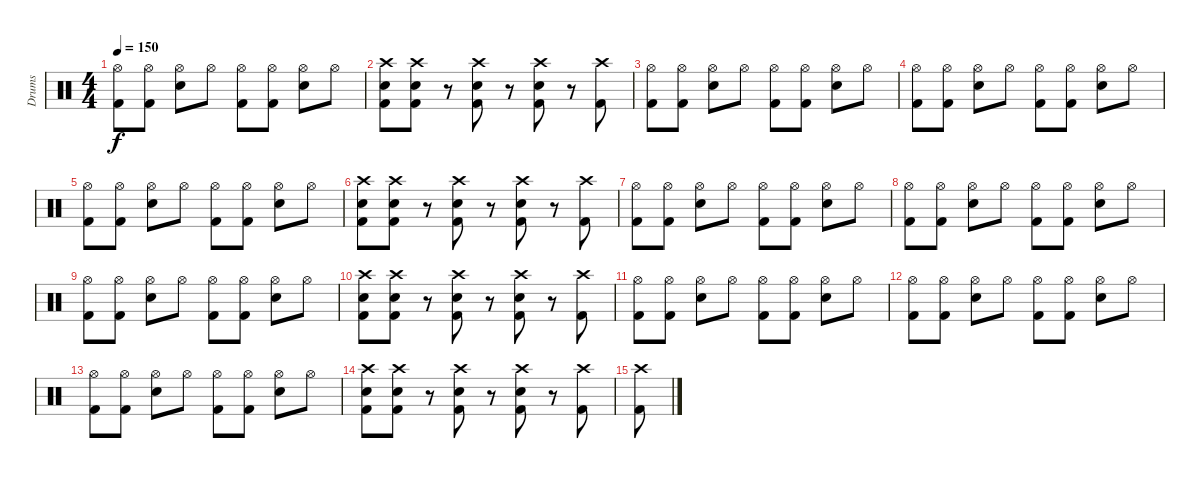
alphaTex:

\track ("Drums" "Drums") {instrument percussion}
\staff {score}
\articulation defaults
\ts (4 4)
\tempo 150
\clef neutral
\ks c
("Hi-Hat (open)" "Kick (hit) 2").8{dy f} ("Hi-Hat (open)" "Kick (hit) 2").8 ("Hi-Hat (open)" "Electric Snare (hit)").8 "Hi-Hat (open)".8 ("Hi-Hat (open)" "Kick (hit) 2").8 ("Hi-Hat (open)" "Kick (hit) 2").8 ("Hi-Hat (open)" "Electric Snare (hit)").8 "Hi-Hat (open)".8 |
("Crash high (hit)" "Electric Snare (hit)" "Kick (hit) 2").8 ("Crash high (hit)" "Electric Snare (hit)" "Kick (hit) 2").8 r.8 ("Crash high (hit)" "Electric Snare (hit)" "Kick (hit) 2").8 r.8 ("Crash high (hit)" "Electric Snare (hit)" "Kick (hit) 2").8 r.8 ("Crash high (hit)" "Kick (hit) 2").8 |
("Hi-Hat (open)" "Kick (hit) 2").8 ("Hi-Hat (open)" "Kick (hit) 2").8 ("Hi-Hat (open)" "Electric Snare (hit)").8 "Hi-Hat (open)".8 ("Hi-Hat (open)" "Kick (hit) 2").8 ("Hi-Hat (open)" "Kick (hit) 2").8 ("Hi-Hat (open)" "Electric Snare (hit)").8 "Hi-Hat (open)".8 |
("Hi-Hat (open)" "Kick (hit) 2").8 ("Hi-Hat (open)" "Kick (hit) 2").8 ("Hi-Hat (open)" "Electric Snare (hit)").8 "Hi-Hat (open)".8 ("Hi-Hat (open)" "Kick (hit) 2").8 ("Hi-Hat (open)" "Kick (hit) 2").8 ("Hi-Hat (open)" "Electric Snare (hit)").8 "Hi-Hat (open)".8 |
("Hi-Hat (open)" "Kick (hit) 2").8 ("Hi-Hat (open)" "Kick (hit) 2").8 ("Hi-Hat (open)" "Electric Snare (hit)").8 "Hi-Hat (open)".8 ("Hi-Hat (open)" "Kick (hit) 2").8 ("Hi-Hat (open)" "Kick (hit) 2").8 ("Hi-Hat (open)" "Electric Snare (hit)").8 "Hi-Hat (open)".8 |
("Crash high (hit)" "Electric Snare (hit)" "Kick (hit) 2").8 ("Crash high (hit)" "Electric Snare (hit)" "Kick (hit) 2").8 r.8 ("Crash high (hit)" "Electric Snare (hit)" "Kick (hit) 2").8 r.8 ("Crash high (hit)" "Electric Snare (hit)" "Kick (hit) 2").8 r.8 ("Crash high (hit)" "Kick (hit) 2").8 |
("Hi-Hat (open)" "Kick (hit) 2").8 ("Hi-Hat (open)" "Kick (hit) 2").8 ("Hi-Hat (open)" "Electric Snare (hit)").8 "Hi-Hat (open)".8 ("Hi-Hat (open)" "Kick (hit) 2").8 ("Hi-Hat (open)" "Kick (hit) 2").8 ("Hi-Hat (open)" "Electric Snare (hit)").8 "Hi-Hat (open)".8 |
("Hi-Hat (open)" "Kick (hit) 2").8 ("Hi-Hat (open)" "Kick (hit) 2").8 ("Hi-Hat (open)" "Electric Snare (hit)").8 "Hi-Hat (open)".8 ("Hi-Hat (open)" "Kick (hit) 2").8 ("Hi-Hat (open)" "Kick (hit) 2").8 ("Hi-Hat (open)" "Electric Snare (hit)").8 "Hi-Hat (open)".8 |
("Hi-Hat (open)" "Kick (hit) 2").8 ("Hi-Hat (open)" "Kick (hit) 2").8 ("Hi-Hat (open)" "Electric Snare (hit)").8 "Hi-Hat (open)".8 ("Hi-Hat (open)" "Kick (hit) 2").8 ("Hi-Hat (open)" "Kick (hit) 2").8 ("Hi-Hat (open)" "Electric Snare (hit)").8 "Hi-Hat (open)".8 |
("Crash high (hit)" "Electric Snare (hit)" "Kick (hit) 2").8 ("Crash high (hit)" "Electric Snare (hit)" "Kick (hit) 2").8 r.8 ("Crash high (hit)" "Electric Snare (hit)" "Kick (hit) 2").8 r.8 ("Crash high (hit)" "Electric Snare (hit)" "Kick (hit) 2").8 r.8 ("Crash high (hit)" "Kick (hit) 2").8 |
("Hi-Hat (open)" "Kick (hit) 2").8 ("Hi-Hat (open)" "Kick (hit) 2").8 ("Hi-Hat (open)" "Electric Snare (hit)").8 "Hi-Hat (open)".8 ("Hi-Hat (open)" "Kick (hit) 2").8 ("Hi-Hat (open)" "Kick (hit) 2").8 ("Hi-Hat (open)" "Electric Snare (hit)").8 "Hi-Hat (open)".8 |
("Hi-Hat (open)" "Kick (hit) 2").8 ("Hi-Hat (open)" "Kick (hit) 2").8 ("Hi-Hat (open)" "Electric Snare (hit)").8 "Hi-Hat (open)".8 ("Hi-Hat (open)" "Kick (hit) 2").8 ("Hi-Hat (open)" "Kick (hit) 2").8 ("Hi-Hat (open)" "Electric Snare (hit)").8 "Hi-Hat (open)".8 |
("Hi-Hat (open)" "Kick (hit) 2").8 ("Hi-Hat (open)" "Kick (hit) 2").8 ("Hi-Hat (open)" "Electric Snare (hit)").8 "Hi-Hat (open)".8 ("Hi-Hat (open)" "Kick (hit) 2").8 ("Hi-Hat (open)" "Kick (hit) 2").8 ("Hi-Hat (open)" "Electric Snare (hit)").8 "Hi-Hat (open)".8 |
("Crash high (hit)" "Electric Snare (hit)" "Kick (hit) 2").8 ("Crash high (hit)" "Electric Snare (hit)" "Kick (hit) 2").8 r.8 ("Crash high (hit)" "Electric Snare (hit)" "Kick (hit) 2").8 r.8 ("Crash high (hit)" "Electric Snare (hit)" "Kick (hit) 2").8 r.8 ("Crash high (hit)" "Kick (hit) 2").8 |
("Crash high (hit)" "Kick (hit) 2").8
